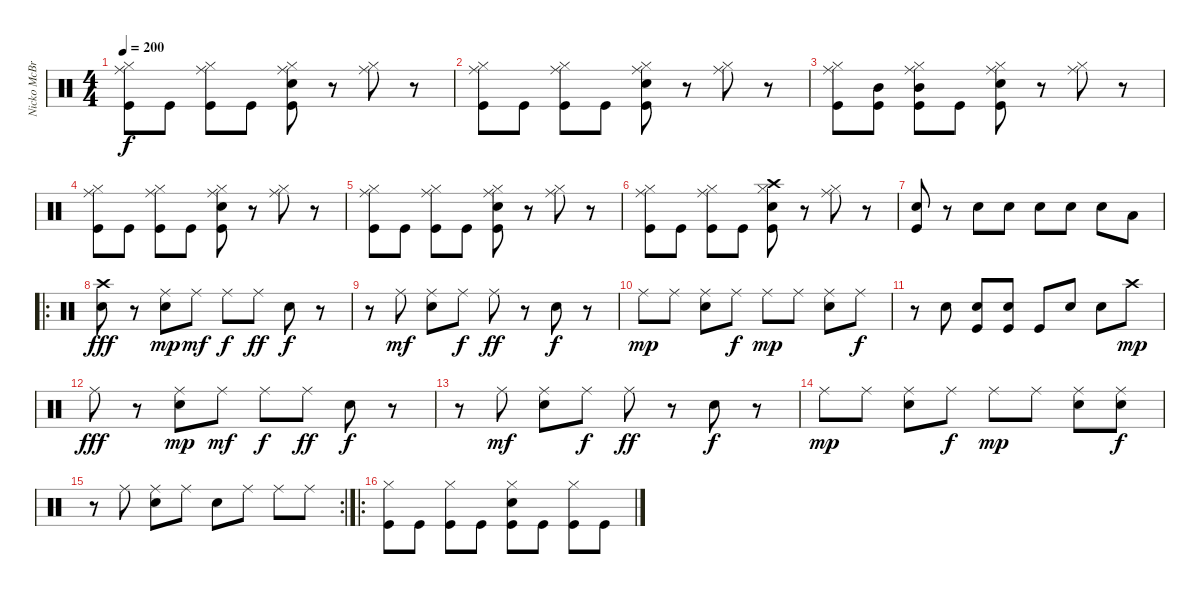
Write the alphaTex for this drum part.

\track ("Nicko McBrain" "Nicko McBr") {instrument percussion}
\staff {score}
\articulation defaults
\ts (4 4)
\tempo 200
\clef neutral
\ks c
("Ride (middle)" "Hi-Hat (closed)" "Kick (hit)").8{dy f} "Kick (hit)".8 ("Ride (middle)" "Hi-Hat (closed)" "Kick (hit)").8 "Kick (hit)".8 ("Ride (middle)" "Electric Snare (hit)" "Hi-Hat (closed)" "Kick (hit)").8 r.8 ("Ride (middle)" "Hi-Hat (closed)").8 r.8 |
("Ride (middle)" "Hi-Hat (closed)" "Kick (hit)").8 "Kick (hit)".8 ("Ride (middle)" "Hi-Hat (closed)" "Kick (hit)").8 "Kick (hit)".8 ("Ride (middle)" "Electric Snare (hit)" "Hi-Hat (closed)" "Kick (hit)").8 r.8 ("Ride (middle)" "Hi-Hat (closed)").8 r.8 |
("Ride (middle)" "Hi-Hat (closed)" "Kick (hit)").8 ("Mid Tom (hit)" "Kick (hit)").8 ("Ride (middle)" "Mid Tom (hit)" "Hi-Hat (closed)" "Kick (hit)").8 "Kick (hit)".8 ("Ride (middle)" "Electric Snare (hit)" "Hi-Hat (closed)" "Kick (hit)").8 r.8 ("Ride (middle)" "Hi-Hat (closed)").8 r.8 |
("Ride (middle)" "Hi-Hat (closed)" "Kick (hit)").8 "Kick (hit)".8 ("Ride (middle)" "Hi-Hat (closed)" "Kick (hit)").8 "Kick (hit)".8 ("Ride (middle)" "Electric Snare (hit)" "Hi-Hat (closed)" "Kick (hit)").8 r.8 ("Ride (middle)" "Hi-Hat (closed)").8 r.8 |
("Ride (middle)" "Hi-Hat (closed)" "Kick (hit)").8 "Kick (hit)".8 ("Ride (middle)" "Hi-Hat (closed)" "Kick (hit)").8 "Kick (hit)".8 ("Ride (middle)" "Electric Snare (hit)" "Hi-Hat (closed)" "Kick (hit)").8 r.8 ("Ride (middle)" "Hi-Hat (closed)").8 r.8 |
("Ride (middle)" "Hi-Hat (closed)" "Kick (hit)").8 "Kick (hit)".8 ("Ride (middle)" "Hi-Hat (closed)" "Kick (hit)").8 "Kick (hit)".8 ("Crash high (hit)" "Electric Snare (hit)" "Hi-Hat (closed)" "Kick (hit)").8 r.8 ("Ride (middle)" "Hi-Hat (closed)").8 r.8 |
("Electric Snare (hit)" "Kick (hit)").8 r.8 "Electric Snare (hit)".8 "Electric Snare (hit)".8 "Electric Snare (hit)".8 "Electric Snare (hit)".8 "Snare (hit) 2".8 "Low Tom (hit)".8 |
\ro
("Crash high (hit)" "Electric Snare (hit)").8{dy fff} r.8 ("Ride (middle)" "Electric Snare (hit)").8{dy mp} "Ride (middle)".8{dy mf} "Ride (middle)".8{dy f} "Ride (middle)".8{dy ff} "Electric Snare (hit)".8{dy f} r.8 |
r.8 "Ride (middle)".8{dy mf} ("Ride (middle)" "Electric Snare (hit)").8 "Ride (middle)".8{dy f} "Ride (middle)".8{dy ff} r.8 "Electric Snare (hit)".8{dy f} r.8 |
"Ride (middle)".8{dy mp} "Ride (middle)".8 ("Ride (middle)" "Electric Snare (hit)").8 "Ride (middle)".8{dy f} "Ride (middle)".8{dy mp} "Ride (middle)".8 ("Ride (middle)" "Electric Snare (hit)").8 "Ride (middle)".8{dy f} |
r.8 "Electric Snare (hit)".8 ("Electric Snare (hit)" "Kick (hit)").8 ("Electric Snare (hit)" "Kick (hit)").8 "Kick (hit)".8 "Electric Snare (hit)".8 "Electric Snare (hit)".8 "Crash high (hit)".8{dy mp} |
"Ride (middle)".8{dy fff} r.8 ("Ride (middle)" "Electric Snare (hit)").8{dy mp} "Ride (middle)".8{dy mf} "Ride (middle)".8{dy f} "Ride (middle)".8{dy ff} "Electric Snare (hit)".8{dy f} r.8 |
r.8 "Ride (middle)".8{dy mf} ("Ride (middle)" "Electric Snare (hit)").8 "Ride (middle)".8{dy f} "Ride (middle)".8{dy ff} r.8 "Electric Snare (hit)".8{dy f} r.8 |
"Ride (middle)".8{dy mp} "Ride (middle)".8 ("Ride (middle)" "Electric Snare (hit)").8 "Ride (middle)".8{dy f} "Ride (middle)".8{dy mp} "Ride (middle)".8 ("Ride (middle)" "Electric Snare (hit)").8 ("Ride (middle)" "Electric Snare (hit)").8{dy f} |
\rc 2
r.8 "Ride (middle)".8 ("Ride (middle)" "Electric Snare (hit)").8 "Ride (middle)".8 "Electric Snare (hit)".8 "Ride (middle)".8 "Ride (middle)".8 "Ride (middle)".8 |
\ro
("Hi-Hat (closed)" "Kick (hit)").8 "Kick (hit)".8 ("Hi-Hat (closed)" "Kick (hit)").8 "Kick (hit)".8 ("Hi-Hat (closed)" "Electric Snare (hit)" "Kick (hit)").8 "Kick (hit)".8 ("Hi-Hat (closed)" "Kick (hit)").8 "Kick (hit)".8
